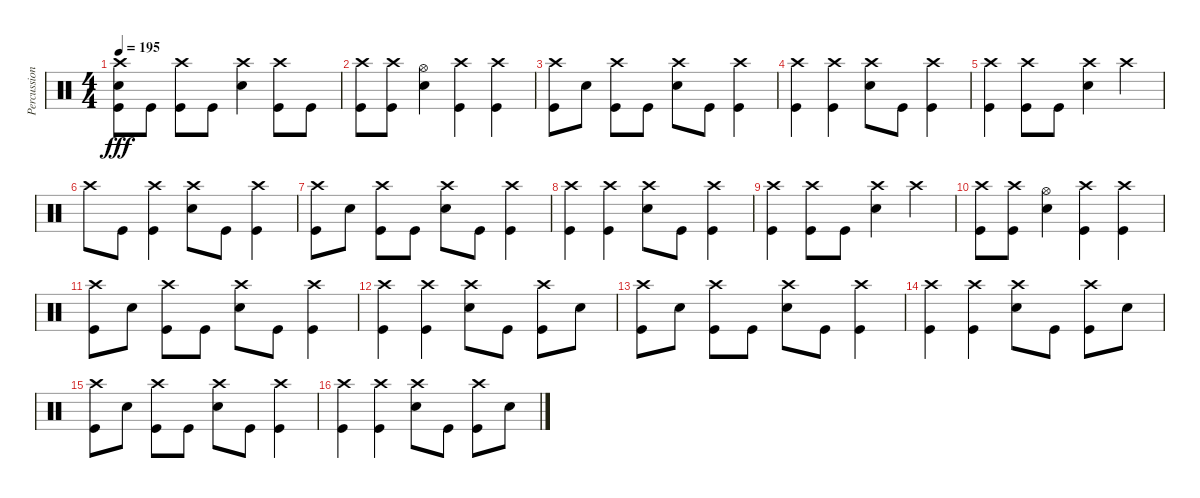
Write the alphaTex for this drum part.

\track ("Percussions" "Percussion") {instrument percussion}
\staff {score}
\articulation defaults
\ts (4 4)
\tempo 195
\clef neutral
\ks c
("Crash high (hit)" "Electric Snare (hit)" "Kick (hit)").8{dy fff} "Kick (hit)".8 ("Crash high (hit)" "Kick (hit)").8 "Kick (hit)".8 ("Crash high (hit)" "Electric Snare (hit)").4 ("Crash high (hit)" "Kick (hit)").8 "Kick (hit)".8 |
("Crash high (hit)" "Kick (hit)").8 ("Crash high (hit)" "Kick (hit)").8 ("Hi-Hat (open)" "Electric Snare (hit)").4 ("Crash high (hit)" "Kick (hit)").4 ("Crash high (hit)" "Kick (hit)").4 |
("Crash high (hit)" "Kick (hit)").8 "Electric Snare (hit)".8 ("Crash high (hit)" "Kick (hit)").8 "Kick (hit)".8 ("Crash high (hit)" "Electric Snare (hit)").8 "Kick (hit)".8 ("Crash high (hit)" "Kick (hit)").4 |
("Crash high (hit)" "Kick (hit)").4 ("Crash high (hit)" "Kick (hit)").4 ("Crash high (hit)" "Electric Snare (hit)").8 "Kick (hit)".8 ("Crash high (hit)" "Kick (hit)").4 |
("Crash high (hit)" "Kick (hit)").4 ("Crash high (hit)" "Kick (hit)").8 "Kick (hit)".8 ("Crash high (hit)" "Electric Snare (hit)").4 "Crash high (hit)".4 |
"Crash high (hit)".8 "Kick (hit)".8 ("Crash high (hit)" "Kick (hit)").4 ("Crash high (hit)" "Electric Snare (hit)").8 "Kick (hit)".8 ("Crash high (hit)" "Kick (hit)").4 |
("Crash high (hit)" "Kick (hit)").8 "Electric Snare (hit)".8 ("Crash high (hit)" "Kick (hit)").8 "Kick (hit)".8 ("Crash high (hit)" "Electric Snare (hit)").8 "Kick (hit)".8 ("Crash high (hit)" "Kick (hit)").4 |
("Crash high (hit)" "Kick (hit)").4 ("Crash high (hit)" "Kick (hit)").4 ("Crash high (hit)" "Electric Snare (hit)").8 "Kick (hit)".8 ("Crash high (hit)" "Kick (hit)").4 |
("Crash high (hit)" "Kick (hit)").4 ("Crash high (hit)" "Kick (hit)").8 "Kick (hit)".8 ("Crash high (hit)" "Electric Snare (hit)").4 "Crash high (hit)".4 |
("Crash high (hit)" "Kick (hit)").8 ("Crash high (hit)" "Kick (hit)").8 ("Hi-Hat (open)" "Electric Snare (hit)").4 ("Crash high (hit)" "Kick (hit)").4 ("Crash high (hit)" "Kick (hit)").4 |
("Crash high (hit)" "Kick (hit)").8 "Electric Snare (hit)".8 ("Crash high (hit)" "Kick (hit)").8 "Kick (hit)".8 ("Crash high (hit)" "Electric Snare (hit)").8 "Kick (hit)".8 ("Crash high (hit)" "Kick (hit)").4 |
("Crash high (hit)" "Kick (hit)").4 ("Crash high (hit)" "Kick (hit)").4 ("Crash high (hit)" "Electric Snare (hit)").8 "Kick (hit)".8 ("Crash high (hit)" "Kick (hit)").8 "Electric Snare (hit)".8 |
("Crash high (hit)" "Kick (hit)").8 "Electric Snare (hit)".8 ("Crash high (hit)" "Kick (hit)").8 "Kick (hit)".8 ("Crash high (hit)" "Electric Snare (hit)").8 "Kick (hit)".8 ("Crash high (hit)" "Kick (hit)").4 |
("Crash high (hit)" "Kick (hit)").4 ("Crash high (hit)" "Kick (hit)").4 ("Crash high (hit)" "Electric Snare (hit)").8 "Kick (hit)".8 ("Crash high (hit)" "Kick (hit)").8 "Electric Snare (hit)".8 |
("Crash high (hit)" "Kick (hit)").8 "Electric Snare (hit)".8 ("Crash high (hit)" "Kick (hit)").8 "Kick (hit)".8 ("Crash high (hit)" "Electric Snare (hit)").8 "Kick (hit)".8 ("Crash high (hit)" "Kick (hit)").4 |
("Crash high (hit)" "Kick (hit)").4 ("Crash high (hit)" "Kick (hit)").4 ("Crash high (hit)" "Electric Snare (hit)").8 "Kick (hit)".8 ("Crash high (hit)" "Kick (hit)").8 "Electric Snare (hit)".8
